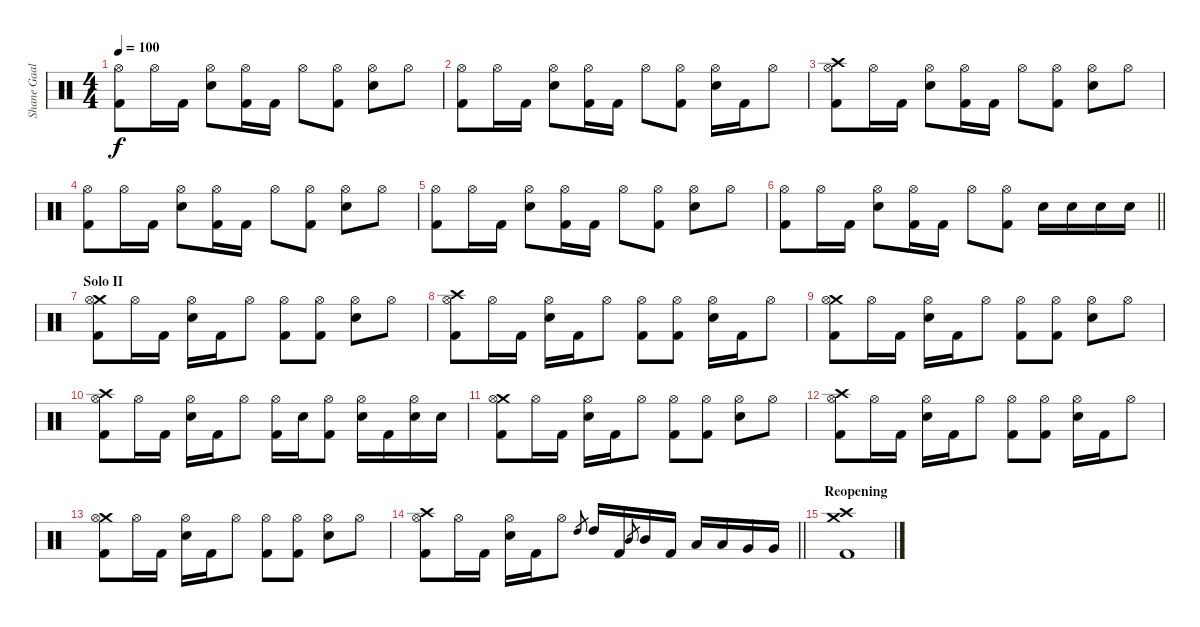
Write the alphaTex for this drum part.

\track ("Shane Gaalaas" "Shane Gaal") {instrument percussion}
\staff {score}
\articulation defaults
\ts (4 4)
\tempo 100
\clef neutral
\ks c
("Hi-Hat (open)" "Kick (hit) 2").8{dy f} "Hi-Hat (open)".16 "Kick (hit) 2".16 ("Hi-Hat (open)" "Snare (hit) 2").8 ("Hi-Hat (open)" "Kick (hit) 2").16 "Kick (hit) 2".16 "Hi-Hat (open)".8 ("Hi-Hat (open)" "Kick (hit) 2").8 ("Hi-Hat (open)" "Snare (hit) 2").8 "Hi-Hat (open)".8 |
("Hi-Hat (open)" "Kick (hit) 2").8 "Hi-Hat (open)".16 "Kick (hit) 2".16 ("Hi-Hat (open)" "Snare (hit) 2").8 ("Hi-Hat (open)" "Kick (hit) 2").16 "Kick (hit) 2".16 "Hi-Hat (open)".8 ("Hi-Hat (open)" "Kick (hit) 2").8 ("Hi-Hat (open)" "Snare (hit) 2").16 "Kick (hit) 2".16 "Hi-Hat (open)".8 |
("Crash high (hit)" "Hi-Hat (open)" "Kick (hit) 2").8 "Hi-Hat (open)".16 "Kick (hit) 2".16 ("Hi-Hat (open)" "Snare (hit) 2").8 ("Hi-Hat (open)" "Kick (hit) 2").16 "Kick (hit) 2".16 "Hi-Hat (open)".8 ("Hi-Hat (open)" "Kick (hit) 2").8 ("Hi-Hat (open)" "Snare (hit) 2").8 "Hi-Hat (open)".8 |
("Hi-Hat (open)" "Kick (hit) 2").8 "Hi-Hat (open)".16 "Kick (hit) 2".16 ("Hi-Hat (open)" "Snare (hit) 2").8 ("Hi-Hat (open)" "Kick (hit) 2").16 "Kick (hit) 2".16 "Hi-Hat (open)".8 ("Hi-Hat (open)" "Kick (hit) 2").8 ("Hi-Hat (open)" "Snare (hit) 2").8 "Hi-Hat (open)".8 |
("Hi-Hat (open)" "Kick (hit) 2").8 "Hi-Hat (open)".16 "Kick (hit) 2".16 ("Hi-Hat (open)" "Snare (hit) 2").8 ("Hi-Hat (open)" "Kick (hit) 2").16 "Kick (hit) 2".16 "Hi-Hat (open)".8 ("Hi-Hat (open)" "Kick (hit) 2").8 ("Hi-Hat (open)" "Snare (hit) 2").8 "Hi-Hat (open)".8 |
\barLineRight lightlight
("Hi-Hat (open)" "Kick (hit) 2").8 "Hi-Hat (open)".16 "Kick (hit) 2".16 ("Hi-Hat (open)" "Snare (hit) 2").8 ("Hi-Hat (open)" "Kick (hit) 2").16 "Kick (hit) 2".16 "Hi-Hat (open)".8 ("Hi-Hat (open)" "Kick (hit) 2").8 "Snare (hit) 2".16 "Snare (hit) 2".16 "Snare (hit) 2".16 "Snare (hit) 2".16 |
\section ("" "Solo II")
("Crash medium (hit)" "Hi-Hat (open)" "Kick (hit) 2").8 "Hi-Hat (open)".16 "Kick (hit) 2".16 ("Hi-Hat (open)" "Snare (hit) 2").16 "Kick (hit) 2".16 "Hi-Hat (open)".8 ("Hi-Hat (open)" "Kick (hit) 2").8 ("Hi-Hat (open)" "Kick (hit) 2").8 ("Hi-Hat (open)" "Snare (hit) 2").8 "Hi-Hat (open)".8 |
("Crash high (hit)" "Hi-Hat (open)" "Kick (hit) 2").8 "Hi-Hat (open)".16 "Kick (hit) 2".16 ("Hi-Hat (open)" "Snare (hit) 2").16 "Kick (hit) 2".16 "Hi-Hat (open)".8 ("Hi-Hat (open)" "Kick (hit) 2").8 ("Hi-Hat (open)" "Kick (hit) 2").8 ("Hi-Hat (open)" "Snare (hit) 2").16 "Kick (hit) 2".16 "Hi-Hat (open)".8 |
("Crash medium (hit)" "Hi-Hat (open)" "Kick (hit) 2").8 "Hi-Hat (open)".16 "Kick (hit) 2".16 ("Hi-Hat (open)" "Snare (hit) 2").16 "Kick (hit) 2".16 "Hi-Hat (open)".8 ("Hi-Hat (open)" "Kick (hit) 2").8 ("Hi-Hat (open)" "Kick (hit) 2").8 ("Hi-Hat (open)" "Snare (hit) 2").8 "Hi-Hat (open)".8 |
("Crash high (hit)" "Hi-Hat (open)" "Kick (hit) 2").8 "Hi-Hat (open)".16 "Kick (hit) 2".16 ("Hi-Hat (open)" "Snare (hit) 2").16 "Kick (hit) 2".16 "Hi-Hat (open)".8 ("Hi-Hat (open)" "Kick (hit) 2").16 "Snare (hit) 2".16 ("Hi-Hat (open)" "Kick (hit) 2").8 ("Hi-Hat (open)" "Snare (hit) 2").16 "Kick (hit) 2".16 ("Hi-Hat (open)" "Snare (hit) 2").16 "Snare (hit) 2".16 |
("Crash medium (hit)" "Hi-Hat (open)" "Kick (hit) 2").8 "Hi-Hat (open)".16 "Kick (hit) 2".16 ("Hi-Hat (open)" "Snare (hit) 2").16 "Kick (hit) 2".16 "Hi-Hat (open)".8 ("Hi-Hat (open)" "Kick (hit) 2").8 ("Hi-Hat (open)" "Kick (hit) 2").8 ("Hi-Hat (open)" "Snare (hit) 2").8 "Hi-Hat (open)".8 |
("Crash high (hit)" "Hi-Hat (open)" "Kick (hit) 2").8 "Hi-Hat (open)".16 "Kick (hit) 2".16 ("Hi-Hat (open)" "Snare (hit) 2").16 "Kick (hit) 2".16 "Hi-Hat (open)".8 ("Hi-Hat (open)" "Kick (hit) 2").8 ("Hi-Hat (open)" "Kick (hit) 2").8 ("Hi-Hat (open)" "Snare (hit) 2").16 "Kick (hit) 2".16 "Hi-Hat (open)".8 |
("Crash medium (hit)" "Hi-Hat (open)" "Kick (hit) 2").8 "Hi-Hat (open)".16 "Kick (hit) 2".16 ("Hi-Hat (open)" "Snare (hit) 2").16 "Kick (hit) 2".16 "Hi-Hat (open)".8 ("Hi-Hat (open)" "Kick (hit) 2").8 ("Hi-Hat (open)" "Kick (hit) 2").8 ("Hi-Hat (open)" "Snare (hit) 2").8 "Hi-Hat (open)".8 |
\barLineRight lightlight
("Crash high (hit)" "Hi-Hat (open)" "Kick (hit) 2").8 "Hi-Hat (open)".16 "Kick (hit) 2".16 ("Hi-Hat (open)" "Snare (hit) 2").16 "Kick (hit) 2".16 "Hi-Hat (open)".8 "High Tom (hit)".8{gr} "High Tom (hit)".16 "Kick (hit) 2".16 "Mid Tom (hit)".8{gr} "Mid Tom (hit)".16 "Kick (hit) 2".16 "Low Tom (hit)".16 "Low Tom (hit)".16 "Very Low Tom (hit)".16 "Very Low Tom (hit)".16 |
\section ("" "Reopening")
("Crash high (hit)" "Crash medium (hit)" "Kick (hit) 2").1
